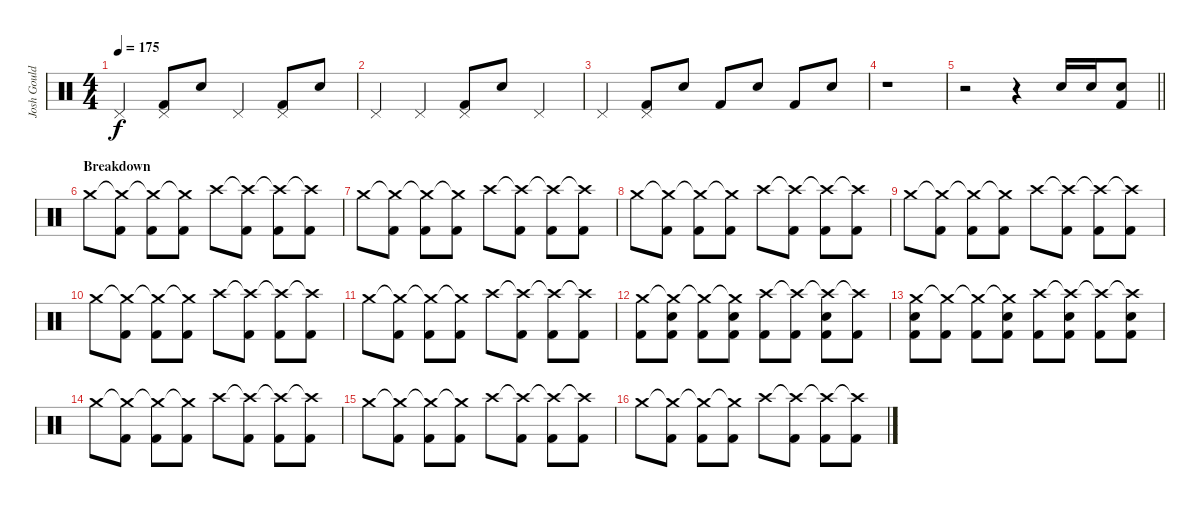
\track ("Josh Gould - Drums" "Josh Gould") {instrument percussion}
\staff {score}
\articulation defaults
\ts (4 4)
\tempo 175
\clef neutral
\ks c "Pedal Hi-Hat (hit)".4{dy f}
("Pedal Hi-Hat (hit)" "Kick (hit) 2").8 "Snare (hit) 2".8 "Pedal Hi-Hat (hit)".4 ("Pedal Hi-Hat (hit)" "Kick (hit) 2").8 "Snare (hit) 2".8 |
"Pedal Hi-Hat (hit)".4{volume 13} "Pedal Hi-Hat (hit)".4 ("Pedal Hi-Hat (hit)" "Kick (hit) 2").8 "Snare (hit) 2".8 "Pedal Hi-Hat (hit)".4 |
"Pedal Hi-Hat (hit)".4 ("Pedal Hi-Hat (hit)" "Kick (hit) 2").8 "Snare (hit) 2".8 "Kick (hit) 2".8 "Snare (hit) 2".8 "Kick (hit) 2".8 "Snare (hit) 2".8 |
r.1 |
\barLineRight lightlight
r.2 r.4 "Snare (hit) 2".16 "Snare (hit) 2".16 ("Snare (hit) 2" "Kick (hit) 2").8 |
\section ("" "Breakdown")
"Crash medium (hit)".8 ("Crash medium (hit)"{t} "Kick (hit) 2").8 ("Crash medium (hit)"{t} "Kick (hit) 2").8 ("Crash medium (hit)"{t} "Kick (hit) 2").8 "Crash high (hit)".8 ("Crash high (hit)"{t} "Kick (hit) 2").8 ("Crash high (hit)"{t} "Kick (hit) 2").8 ("Crash high (hit)"{t} "Kick (hit) 2").8 |
"Crash medium (hit)".8 ("Crash medium (hit)"{t} "Kick (hit) 2").8 ("Crash medium (hit)"{t} "Kick (hit) 2").8 ("Crash medium (hit)"{t} "Kick (hit) 2").8 "Crash high (hit)".8 ("Crash high (hit)"{t} "Kick (hit) 2").8 ("Crash high (hit)"{t} "Kick (hit) 2").8 ("Crash high (hit)"{t} "Kick (hit) 2").8 |
"Crash medium (hit)".8 ("Crash medium (hit)"{t} "Kick (hit) 2").8 ("Crash medium (hit)"{t} "Kick (hit) 2").8 ("Crash medium (hit)"{t} "Kick (hit) 2").8 "Crash high (hit)".8 ("Crash high (hit)"{t} "Kick (hit) 2").8 ("Crash high (hit)"{t} "Kick (hit) 2").8 ("Crash high (hit)"{t} "Kick (hit) 2").8 |
"Crash medium (hit)".8 ("Crash medium (hit)"{t} "Kick (hit) 2").8 ("Crash medium (hit)"{t} "Kick (hit) 2").8 ("Crash medium (hit)"{t} "Kick (hit) 2").8 "Crash high (hit)".8 ("Crash high (hit)"{t} "Kick (hit) 2").8 ("Crash high (hit)"{t} "Kick (hit) 2").8 ("Crash high (hit)"{t} "Kick (hit) 2").8 |
"Crash medium (hit)".8 ("Crash medium (hit)"{t} "Kick (hit) 2").8 ("Crash medium (hit)"{t} "Kick (hit) 2").8 ("Crash medium (hit)"{t} "Kick (hit) 2").8 "Crash high (hit)".8 ("Crash high (hit)"{t} "Kick (hit) 2").8 ("Crash high (hit)"{t} "Kick (hit) 2").8 ("Crash high (hit)"{t} "Kick (hit) 2").8 |
"Crash medium (hit)".8 ("Crash medium (hit)"{t} "Kick (hit) 2").8 ("Crash medium (hit)"{t} "Kick (hit) 2").8 ("Crash medium (hit)"{t} "Kick (hit) 2").8 "Crash high (hit)".8 ("Crash high (hit)"{t} "Kick (hit) 2").8 ("Crash high (hit)"{t} "Kick (hit) 2").8 ("Crash high (hit)"{t} "Kick (hit) 2").8 |
("Crash medium (hit)" "Kick (hit) 2").8 ("Crash medium (hit)"{t} "Snare (hit) 2" "Kick (hit) 2").8 ("Crash medium (hit)"{t} "Kick (hit) 2").8 ("Crash medium (hit)"{t} "Snare (hit) 2" "Kick (hit) 2").8 ("Crash high (hit)" "Kick (hit) 2").8 ("Crash high (hit)"{t} "Kick (hit) 2").8 ("Crash high (hit)"{t} "Snare (hit) 2" "Kick (hit) 2").8 ("Crash high (hit)"{t} "Kick (hit) 2").8 |
("Crash medium (hit)" "Snare (hit) 2" "Kick (hit) 2").8 ("Crash medium (hit)"{t} "Kick (hit) 2").8 ("Crash medium (hit)"{t} "Kick (hit) 2").8 ("Crash medium (hit)"{t} "Snare (hit) 2" "Kick (hit) 2").8 ("Crash high (hit)" "Kick (hit) 2").8 ("Crash high (hit)"{t} "Snare (hit) 2" "Kick (hit) 2").8 ("Crash high (hit)"{t} "Kick (hit) 2").8 ("Crash high (hit)"{t} "Snare (hit) 2" "Kick (hit) 2").8 |
"Crash medium (hit)".8 ("Crash medium (hit)"{t} "Kick (hit) 2").8 ("Crash medium (hit)"{t} "Kick (hit) 2").8 ("Crash medium (hit)"{t} "Kick (hit) 2").8 "Crash high (hit)".8 ("Crash high (hit)"{t} "Kick (hit) 2").8 ("Crash high (hit)"{t} "Kick (hit) 2").8 ("Crash high (hit)"{t} "Kick (hit) 2").8 |
"Crash medium (hit)".8 ("Crash medium (hit)"{t} "Kick (hit) 2").8 ("Crash medium (hit)"{t} "Kick (hit) 2").8 ("Crash medium (hit)"{t} "Kick (hit) 2").8 "Crash high (hit)".8 ("Crash high (hit)"{t} "Kick (hit) 2").8 ("Crash high (hit)"{t} "Kick (hit) 2").8 ("Crash high (hit)"{t} "Kick (hit) 2").8 |
"Crash medium (hit)".8 ("Crash medium (hit)"{t} "Kick (hit) 2").8 ("Crash medium (hit)"{t} "Kick (hit) 2").8 ("Crash medium (hit)"{t} "Kick (hit) 2").8 "Crash high (hit)".8 ("Crash high (hit)"{t} "Kick (hit) 2").8 ("Crash high (hit)"{t} "Kick (hit) 2").8 ("Crash high (hit)"{t} "Kick (hit) 2").8
